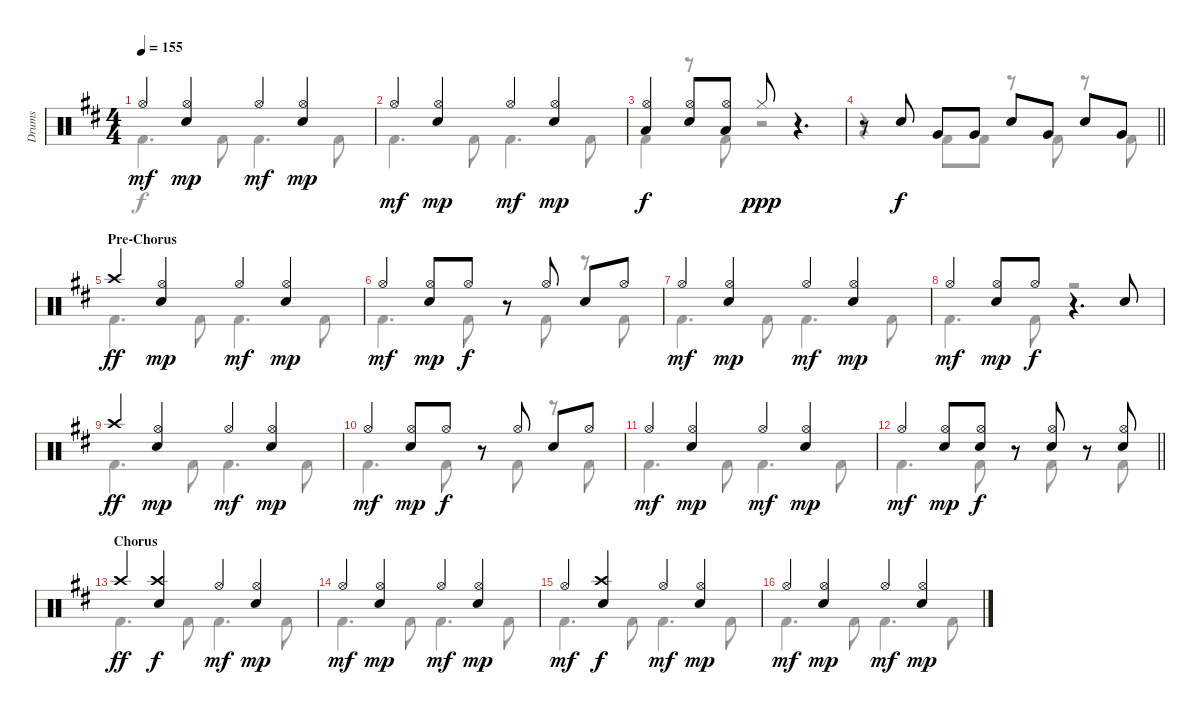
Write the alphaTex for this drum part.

\track ("Drums" "Drums") {instrument percussion}
\staff {score}
\articulation defaults
\voice
\ts (4 4)
\tempo 155
\clef neutral
\ks d "Hi-Hat (open)".4{dy mf}
("Hi-Hat (open)" "Electric Snare (hit)").4{dy mp} "Hi-Hat (open)".4{dy mf} ("Hi-Hat (open)" "Electric Snare (hit)").4{dy mp} |
"Hi-Hat (open)".4{dy mf} ("Hi-Hat (open)" "Electric Snare (hit)").4{dy mp} "Hi-Hat (open)".4{dy mf} ("Hi-Hat (open)" "Electric Snare (hit)").4{dy mp} |
("Hi-Hat (open)" "Low Tom (hit)").4{dy f} ("Hi-Hat (open)" "Electric Snare (hit)").8 ("Hi-Hat (open)" "Low Tom (hit)").8 "Hi-Hat (closed)".8{dy ppp} r.4{d} |
\barLineRight lightlight
r.8 "Electric Snare (hit)".8{dy f} "Very Low Tom (hit)".8 "Very Low Tom (hit)".8 "Electric Snare (hit)".8 "Very Low Tom (hit)".8 "Electric Snare (hit)".8 "Very Low Tom (hit)".8 |
\section ("" "Pre-Chorus")
"Crash high (hit)".4{dy ff} ("Hi-Hat (open)" "Electric Snare (hit)").4{dy mp} "Hi-Hat (open)".4{dy mf} ("Hi-Hat (open)" "Electric Snare (hit)").4{dy mp} |
"Hi-Hat (open)".4{dy mf} ("Hi-Hat (open)" "Electric Snare (hit)").8{dy mp} "Hi-Hat (open)".8{dy f} r.8 "Hi-Hat (open)".8 "Electric Snare (hit)".8 "Hi-Hat (open)".8 |
"Hi-Hat (open)".4{dy mf} ("Hi-Hat (open)" "Electric Snare (hit)").4{dy mp} "Hi-Hat (open)".4{dy mf} ("Hi-Hat (open)" "Electric Snare (hit)").4{dy mp} |
"Hi-Hat (open)".4{dy mf} ("Hi-Hat (open)" "Electric Snare (hit)").8{dy mp} "Hi-Hat (open)".8{dy f} r.4{d} "Electric Snare (hit)".8 |
"Crash high (hit)".4{dy ff} ("Hi-Hat (open)" "Electric Snare (hit)").4{dy mp} "Hi-Hat (open)".4{dy mf} ("Hi-Hat (open)" "Electric Snare (hit)").4{dy mp} |
"Hi-Hat (open)".4{dy mf} ("Hi-Hat (open)" "Electric Snare (hit)").8{dy mp} "Hi-Hat (open)".8{dy f} r.8 "Hi-Hat (open)".8 "Electric Snare (hit)".8 "Hi-Hat (open)".8 |
"Hi-Hat (open)".4{dy mf} ("Hi-Hat (open)" "Electric Snare (hit)").4{dy mp} "Hi-Hat (open)".4{dy mf} ("Hi-Hat (open)" "Electric Snare (hit)").4{dy mp} |
\barLineRight lightlight "Hi-Hat (open)".4{dy mf}
("Hi-Hat (open)" "Electric Snare (hit)").8{dy mp} ("Hi-Hat (open)" "Electric Snare (hit)").8{dy f} r.8 ("Hi-Hat (open)" "Electric Snare (hit)").8 r.8 ("Hi-Hat (open)" "Electric Snare (hit)").8 |
\section ("" "Chorus")
"Crash high (hit)".4{dy ff} ("Crash high (hit)" "Electric Snare (hit)").4{dy f} "Hi-Hat (open)".4{dy mf} ("Hi-Hat (open)" "Electric Snare (hit)").4{dy mp} |
"Hi-Hat (open)".4{dy mf} ("Hi-Hat (open)" "Electric Snare (hit)").4{dy mp} "Hi-Hat (open)".4{dy mf} ("Hi-Hat (open)" "Electric Snare (hit)").4{dy mp} |
"Hi-Hat (open)".4{dy mf} ("Crash high (hit)" "Electric Snare (hit)").4{dy f} "Hi-Hat (open)".4{dy mf} ("Hi-Hat (open)" "Electric Snare (hit)").4{dy mp} |
"Hi-Hat (open)".4{dy mf} ("Hi-Hat (open)" "Electric Snare (hit)").4{dy mp} "Hi-Hat (open)".4{dy mf} ("Hi-Hat (open)" "Electric Snare (hit)").4{dy mp}
\voice
\clef neutral
\ottava regular
\simile none
\ks d "Kick (hit) 2".4{d dy f} "Kick (hit) 2".8 "Kick (hit) 2".4{d} "Kick (hit) 2".8
|
"Kick (hit) 2".4{d} "Kick (hit) 2".8 "Kick (hit) 2".4{d} "Kick (hit) 2".8 |
"Kick (hit) 2".4 r.8 "Kick (hit) 2".8 r.2 |
\barLineRight lightlight
r.4 "Kick (hit) 2".8 "Kick (hit) 2".8 r.8 "Kick (hit) 2".8 r.8 "Kick (hit) 2".8 |
"Kick (hit) 2".4{d} "Kick (hit) 2".8 "Kick (hit) 2".4{d} "Kick (hit) 2".8 |
"Kick (hit) 2".4{d} "Kick (hit) 2".8 r.8 "Kick (hit) 2".8 r.8 "Kick (hit) 2".8 |
"Kick (hit) 2".4{d} "Kick (hit) 2".8 "Kick (hit) 2".4{d} "Kick (hit) 2".8 |
"Kick (hit) 2".4{d} "Kick (hit) 2".8 r.2 |
"Kick (hit) 2".4{d} "Kick (hit) 2".8 "Kick (hit) 2".4{d} "Kick (hit) 2".8 |
"Kick (hit) 2".4{d} "Kick (hit) 2".8 r.8 "Kick (hit) 2".8 r.8 "Kick (hit) 2".8 |
"Kick (hit) 2".4{d} "Kick (hit) 2".8 "Kick (hit) 2".4{d} "Kick (hit) 2".8 |
\barLineRight lightlight "Kick (hit) 2".4{d} "Kick (hit) 2".8
r.8 "Kick (hit) 2".8 r.8 "Kick (hit) 2".8 |
"Kick (hit) 2".4{d} "Kick (hit) 2".8 "Kick (hit) 2".4{d} "Kick (hit) 2".8 |
"Kick (hit) 2".4{d} "Kick (hit) 2".8 "Kick (hit) 2".4{d} "Kick (hit) 2".8 |
"Kick (hit) 2".4{d} "Kick (hit) 2".8 "Kick (hit) 2".4{d} "Kick (hit) 2".8 |
"Kick (hit) 2".4{d} "Kick (hit) 2".8 "Kick (hit) 2".4{d} "Kick (hit) 2".8
